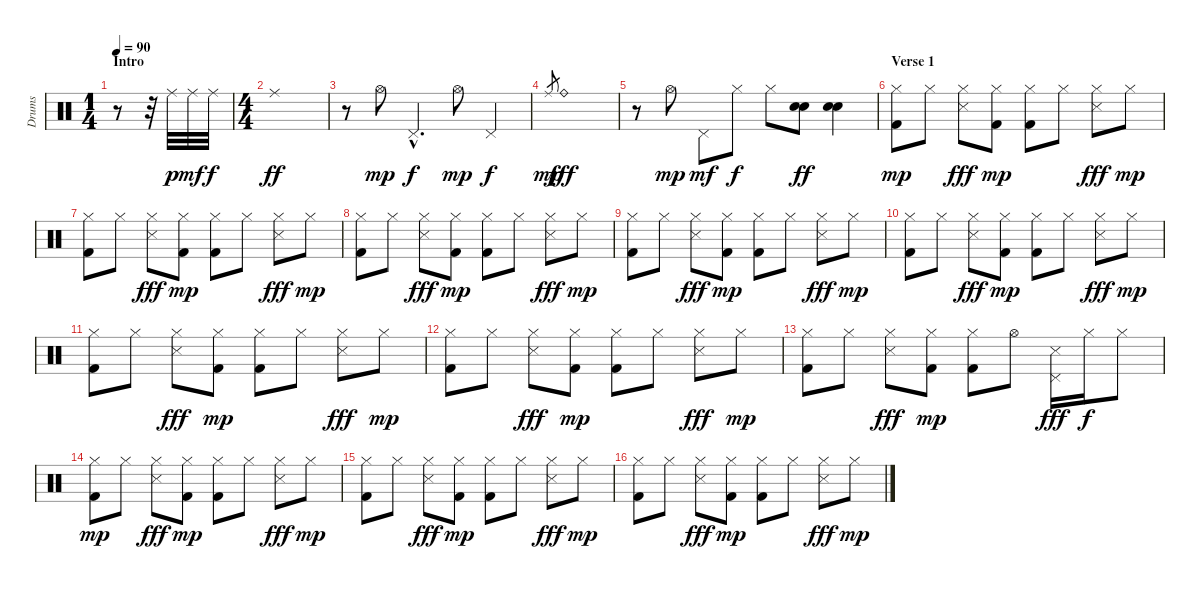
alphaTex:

\track ("Drums" "Drums") {instrument percussion}
\staff {score}
\articulation defaults
\ts (1 4)
\section ("" "Intro")
\tempo 90
\clef neutral
\ks c
r.8{dy p} r.32 "Ride (middle)".32 "Ride (middle)".32{dy mf} "Ride (middle)".32{dy f} |
\ts (4 4)
"Ride (middle)".1{dy ff} |
r.8 "Hi-Hat (open)".8{dy mp} "Pedal Hi-Hat (hit)"{hac}.4{d dy f} "Hi-Hat (open)".8{dy mp} "Pedal Hi-Hat (hit)".4{dy f} |
"Ride (middle)".8{gr dy mp} "Ride (bell)".1{dy fff} |
r.8 "Hi-Hat (open)".8{dy mp} "Pedal Hi-Hat (hit)".8{dy mf} "Hi-Hat (closed)".8{dy f} "Hi-Hat (closed)".8 ("Snare (hit) 2" "Electric Snare (hit)").8{dy ff} ("Snare (hit) 2" "Electric Snare (hit)").4 |
\section ("" "Verse 1")
("Hi-Hat (closed)" "Kick (hit) 2").8{dy mp} "Hi-Hat (closed)".8 ("Hi-Hat (closed)" "Snare (side stick) 3").8{dy fff} ("Hi-Hat (closed)" "Kick (hit) 2").8{dy mp} ("Hi-Hat (closed)" "Kick (hit) 2").8 "Hi-Hat (closed)".8 ("Hi-Hat (closed)" "Snare (side stick) 3").8{dy fff} "Hi-Hat (closed)".8{dy mp} |
("Hi-Hat (closed)" "Kick (hit) 2").8 "Hi-Hat (closed)".8 ("Hi-Hat (closed)" "Snare (side stick) 3").8{dy fff} ("Hi-Hat (closed)" "Kick (hit) 2").8{dy mp} ("Hi-Hat (closed)" "Kick (hit) 2").8 "Hi-Hat (closed)".8 ("Hi-Hat (closed)" "Snare (side stick) 3").8{dy fff} "Hi-Hat (closed)".8{dy mp} |
("Hi-Hat (closed)" "Kick (hit) 2").8 "Hi-Hat (closed)".8 ("Hi-Hat (closed)" "Snare (side stick) 3").8{dy fff} ("Hi-Hat (closed)" "Kick (hit) 2").8{dy mp} ("Hi-Hat (closed)" "Kick (hit) 2").8 "Hi-Hat (closed)".8 ("Hi-Hat (closed)" "Snare (side stick) 3").8{dy fff} "Hi-Hat (closed)".8{dy mp} |
("Hi-Hat (closed)" "Kick (hit) 2").8 "Hi-Hat (closed)".8 ("Hi-Hat (closed)" "Snare (side stick) 3").8{dy fff} ("Hi-Hat (closed)" "Kick (hit) 2").8{dy mp} ("Hi-Hat (closed)" "Kick (hit) 2").8 "Hi-Hat (closed)".8 ("Hi-Hat (closed)" "Snare (side stick) 3").8{dy fff} "Hi-Hat (closed)".8{dy mp} |
("Hi-Hat (closed)" "Kick (hit) 2").8 "Hi-Hat (closed)".8 ("Hi-Hat (closed)" "Snare (side stick) 3").8{dy fff} ("Hi-Hat (closed)" "Kick (hit) 2").8{dy mp} ("Hi-Hat (closed)" "Kick (hit) 2").8 "Hi-Hat (closed)".8 ("Hi-Hat (closed)" "Snare (side stick) 3").8{dy fff} "Hi-Hat (closed)".8{dy mp} |
("Hi-Hat (closed)" "Kick (hit) 2").8 "Hi-Hat (closed)".8 ("Hi-Hat (closed)" "Snare (side stick) 3").8{dy fff} ("Hi-Hat (closed)" "Kick (hit) 2").8{dy mp} ("Hi-Hat (closed)" "Kick (hit) 2").8 "Hi-Hat (closed)".8 ("Hi-Hat (closed)" "Snare (side stick) 3").8{dy fff} "Hi-Hat (closed)".8{dy mp} |
("Hi-Hat (closed)" "Kick (hit) 2").8 "Hi-Hat (closed)".8 ("Hi-Hat (closed)" "Snare (side stick) 3").8{dy fff} ("Hi-Hat (closed)" "Kick (hit) 2").8{dy mp} ("Hi-Hat (closed)" "Kick (hit) 2").8 "Hi-Hat (closed)".8 ("Hi-Hat (closed)" "Snare (side stick) 3").8{dy fff} "Hi-Hat (closed)".8{dy mp} |
("Hi-Hat (closed)" "Kick (hit) 2").8 "Hi-Hat (closed)".8 ("Hi-Hat (closed)" "Snare (side stick) 3").8{dy fff} ("Hi-Hat (closed)" "Kick (hit) 2").8{dy mp} ("Hi-Hat (closed)" "Kick (hit) 2").8 "Hi-Hat (open)".8 ("Pedal Hi-Hat (hit)" "Snare (side stick) 3").16{dy fff} "Hi-Hat (closed)".16{dy f} "Hi-Hat (closed)".8 |
("Hi-Hat (closed)" "Kick (hit) 2").8{dy mp} "Hi-Hat (closed)".8 ("Hi-Hat (closed)" "Snare (side stick) 3").8{dy fff} ("Hi-Hat (closed)" "Kick (hit) 2").8{dy mp} ("Hi-Hat (closed)" "Kick (hit) 2").8 "Hi-Hat (closed)".8 ("Hi-Hat (closed)" "Snare (side stick) 3").8{dy fff} "Hi-Hat (closed)".8{dy mp} |
("Hi-Hat (closed)" "Kick (hit) 2").8 "Hi-Hat (closed)".8 ("Hi-Hat (closed)" "Snare (side stick) 3").8{dy fff} ("Hi-Hat (closed)" "Kick (hit) 2").8{dy mp} ("Hi-Hat (closed)" "Kick (hit) 2").8 "Hi-Hat (closed)".8 ("Hi-Hat (closed)" "Snare (side stick) 3").8{dy fff} "Hi-Hat (closed)".8{dy mp} |
("Hi-Hat (closed)" "Kick (hit) 2").8 "Hi-Hat (closed)".8 ("Hi-Hat (closed)" "Snare (side stick) 3").8{dy fff} ("Hi-Hat (closed)" "Kick (hit) 2").8{dy mp} ("Hi-Hat (closed)" "Kick (hit) 2").8 "Hi-Hat (closed)".8 ("Hi-Hat (closed)" "Snare (side stick) 3").8{dy fff} "Hi-Hat (closed)".8{dy mp}
